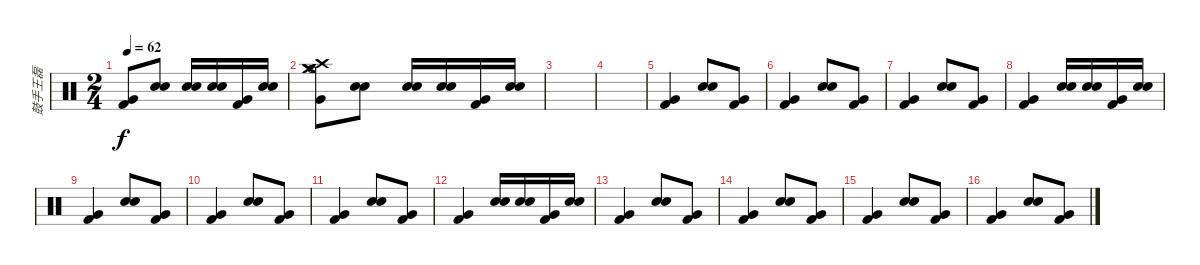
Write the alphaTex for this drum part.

\track ("鼓手王磊" "鼓手王磊") {instrument percussion}
\staff {score}
\articulation defaults
\ts (2 4)
\tempo 62
\clef neutral
\ks c
("Very Low Tom (hit)" "Kick (hit) 2").8{dy f} ("Electric Snare (hit)" "Electric Snare (hit)").8 ("Electric Snare (hit)" "Electric Snare (hit)").16 ("Electric Snare (hit)" "Electric Snare (hit)").16 ("Very Low Tom (hit)" "Kick (hit) 2").16 ("Electric Snare (hit)" "Electric Snare (hit)").16 |
("Crash medium (hit)" "Crash medium (hit)" "Very Low Tom (hit)" "Crash high (hit)" "Hi-Hat (open)" "Hi-Hat (open)").8 ("Electric Snare (hit)" "Electric Snare (hit)").8 ("Electric Snare (hit)" "Electric Snare (hit)").16 ("Electric Snare (hit)" "Electric Snare (hit)").16 ("Very Low Tom (hit)" "Kick (hit) 2").16 ("Electric Snare (hit)" "Electric Snare (hit)").16 |
|
|
("Very Low Tom (hit)" "Kick (hit) 2").4 ("Electric Snare (hit)" "Electric Snare (hit)").8 ("Very Low Tom (hit)" "Kick (hit) 2").8 |
("Very Low Tom (hit)" "Kick (hit) 2").4 ("Electric Snare (hit)" "Electric Snare (hit)").8 ("Very Low Tom (hit)" "Kick (hit) 2").8 |
("Very Low Tom (hit)" "Kick (hit) 2").4 ("Electric Snare (hit)" "Electric Snare (hit)").8 ("Very Low Tom (hit)" "Kick (hit) 2").8 |
("Very Low Tom (hit)" "Kick (hit) 2").4 ("Electric Snare (hit)" "Electric Snare (hit)").16 ("Electric Snare (hit)" "Electric Snare (hit)").16 ("Very Low Tom (hit)" "Kick (hit) 2").16 ("Electric Snare (hit)" "Electric Snare (hit)").16 |
("Very Low Tom (hit)" "Kick (hit) 2").4 ("Electric Snare (hit)" "Electric Snare (hit)").8 ("Very Low Tom (hit)" "Kick (hit) 2").8 |
("Very Low Tom (hit)" "Kick (hit) 2").4 ("Electric Snare (hit)" "Electric Snare (hit)").8 ("Very Low Tom (hit)" "Kick (hit) 2").8 |
("Very Low Tom (hit)" "Kick (hit) 2").4 ("Electric Snare (hit)" "Electric Snare (hit)").8 ("Very Low Tom (hit)" "Kick (hit) 2").8 |
("Very Low Tom (hit)" "Kick (hit) 2").4 ("Electric Snare (hit)" "Electric Snare (hit)").16 ("Electric Snare (hit)" "Electric Snare (hit)").16 ("Very Low Tom (hit)" "Kick (hit) 2").16 ("Electric Snare (hit)" "Electric Snare (hit)").16 |
("Very Low Tom (hit)" "Kick (hit) 2").4 ("Electric Snare (hit)" "Electric Snare (hit)").8 ("Very Low Tom (hit)" "Kick (hit) 2").8 |
("Very Low Tom (hit)" "Kick (hit) 2").4 ("Electric Snare (hit)" "Electric Snare (hit)").8 ("Very Low Tom (hit)" "Kick (hit) 2").8 |
("Very Low Tom (hit)" "Kick (hit) 2").4 ("Electric Snare (hit)" "Electric Snare (hit)").8 ("Very Low Tom (hit)" "Kick (hit) 2").8 |
("Very Low Tom (hit)" "Kick (hit) 2").4 ("Electric Snare (hit)" "Electric Snare (hit)").8 ("Very Low Tom (hit)" "Kick (hit) 2").8
